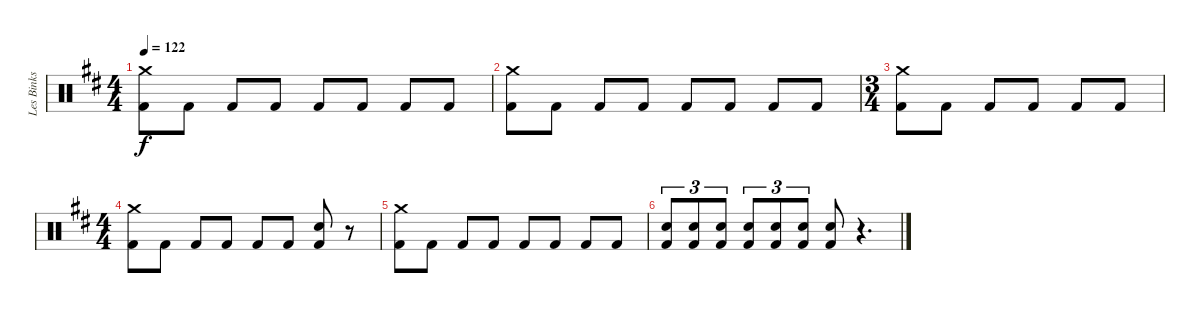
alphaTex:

\track ("Les Binks" "Les Binks") {instrument percussion}
\staff {score}
\articulation defaults
\ts (4 4)
\tempo 122
\clef neutral
\ks d
("Crash medium (hit)" "Kick (hit) 2").8{dy f} "Kick (hit) 2".8 "Kick (hit) 2".8 "Kick (hit) 2".8 "Kick (hit) 2".8 "Kick (hit) 2".8 "Kick (hit) 2".8 "Kick (hit) 2".8 |
("Crash medium (hit)" "Kick (hit) 2").8 "Kick (hit) 2".8 "Kick (hit) 2".8 "Kick (hit) 2".8 "Kick (hit) 2".8 "Kick (hit) 2".8 "Kick (hit) 2".8 "Kick (hit) 2".8 |
\ts (3 4)
("Crash medium (hit)" "Kick (hit) 2").8 "Kick (hit) 2".8 "Kick (hit) 2".8 "Kick (hit) 2".8 "Kick (hit) 2".8 "Kick (hit) 2".8 |
\ts (4 4)
("Crash medium (hit)" "Kick (hit) 2").8 "Kick (hit) 2".8 "Kick (hit) 2".8 "Kick (hit) 2".8 "Kick (hit) 2".8 "Kick (hit) 2".8 ("Snare (hit) 2" "Kick (hit) 2").8 r.8 |
("Crash medium (hit)" "Kick (hit) 2").8 "Kick (hit) 2".8 "Kick (hit) 2".8 "Kick (hit) 2".8 "Kick (hit) 2".8 "Kick (hit) 2".8 "Kick (hit) 2".8 "Kick (hit) 2".8 |
("Snare (hit) 2" "Kick (hit) 2").8{tu (3 2)} ("Snare (hit) 2" "Kick (hit) 2").8{tu (3 2)} ("Snare (hit) 2" "Kick (hit) 2").8{tu (3 2)} ("Snare (hit) 2" "Kick (hit) 2").8{tu (3 2)} ("Snare (hit) 2" "Kick (hit) 2").8{tu (3 2)} ("Snare (hit) 2" "Kick (hit) 2").8{tu (3 2)} ("Snare (hit) 2" "Kick (hit) 2").8 r.4{d}
